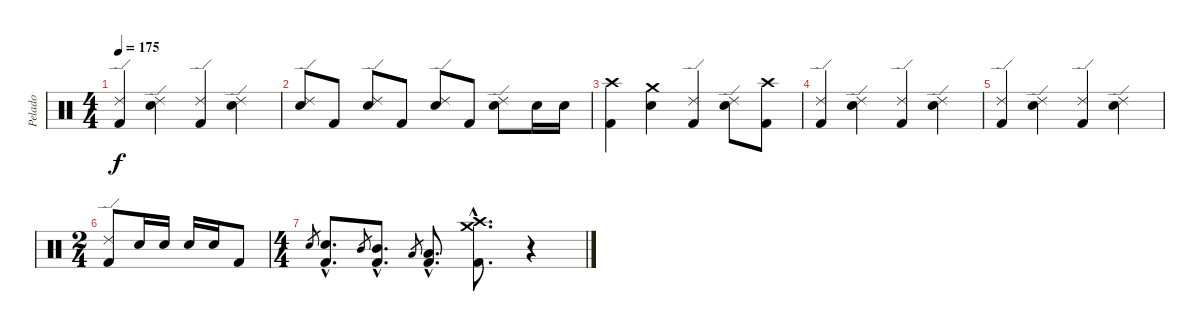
\track ("Pelado" "Pelado") {instrument percussion}
\staff {score}
\articulation defaults
\ts (4 4)
\tempo 175
\clef neutral
\ks c
("Ride (edge) 2" "Kick (hit) 2").4{dy f} ("Ride (edge) 2" "Electric Snare (hit)").4 ("Ride (edge) 2" "Kick (hit) 2").4 ("Ride (edge) 2" "Electric Snare (hit)").4 |
("Ride (edge) 2" "Electric Snare (hit)").8 "Kick (hit) 2".8 ("Ride (edge) 2" "Electric Snare (hit)").8 "Kick (hit) 2".8 ("Ride (edge) 2" "Electric Snare (hit)").8 "Kick (hit) 2".8 ("Ride (edge) 2" "Electric Snare (hit)").8 "Electric Snare (hit)".16 "Electric Snare (hit)".16 |
("Crash high (hit)" "Kick (hit) 2").4 ("Crash medium (hit)" "Electric Snare (hit)").4 ("Ride (edge) 2" "Kick (hit) 2").4 ("Ride (edge) 2" "Electric Snare (hit)").8 ("Crash high (hit)" "Kick (hit) 2").8 |
("Ride (edge) 2" "Kick (hit) 2").4 ("Ride (edge) 2" "Electric Snare (hit)").4 ("Ride (edge) 2" "Kick (hit) 2").4 ("Ride (edge) 2" "Electric Snare (hit)").4 |
("Ride (edge) 2" "Kick (hit) 2").4 ("Ride (edge) 2" "Electric Snare (hit)").4 ("Ride (edge) 2" "Kick (hit) 2").4 ("Ride (edge) 2" "Electric Snare (hit)").4 |
\ts (2 4)
("Ride (edge) 2" "Kick (hit) 2").8 "Electric Snare (hit)".16 "Electric Snare (hit)".16 "Electric Snare (hit)".16 "Electric Snare (hit)".16 "Kick (hit) 2".8 |
\ts (4 4)
"Electric Snare (hit)".8{gr} ("Electric Snare (hit)"{hac} "Kick (hit) 2"{hac}).8{d} "Mid Tom (hit)".8{gr} ("Mid Tom (hit)"{hac} "Kick (hit) 2"{hac}).8{d} "Low Tom (hit)".8{gr} ("Low Tom (hit)"{hac} "Kick (hit) 2"{hac}).8{d} ("Crash high (hit)"{hac} "Crash medium (hit)"{hac} "Kick (hit) 2"{hac}).8{d} r.4
